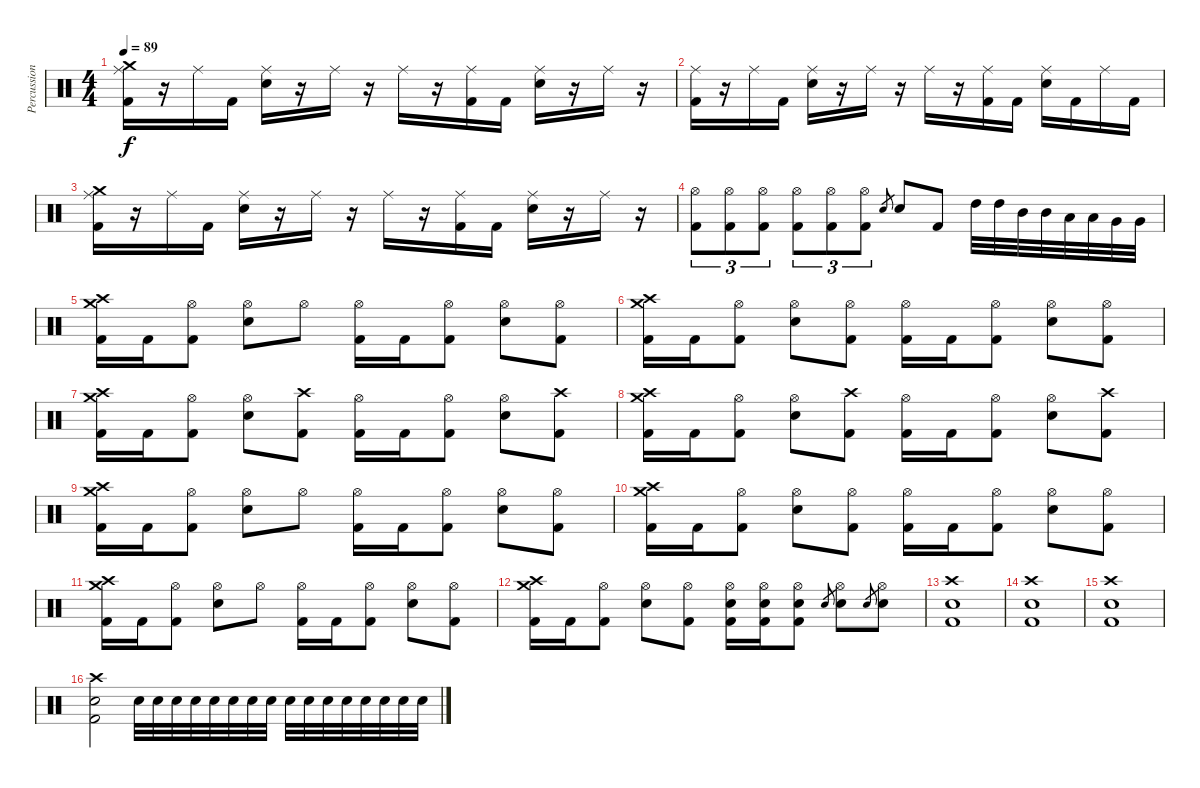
\track ("Percussions" "Percussion") {instrument percussion}
\staff {score}
\articulation defaults
\ts (4 4)
\tempo 89
\clef neutral
\ks c
("Crash medium (hit)" "Ride (middle)" "Kick (hit) 2").16{dy f} r.16 "Ride (middle)".16 "Kick (hit) 2".16 ("Ride (middle)" "Snare (hit) 2").16 r.16 "Ride (middle)".16 r.16 "Ride (middle)".16 r.16 ("Ride (middle)" "Kick (hit) 2").16 "Kick (hit) 2".16 ("Ride (middle)" "Snare (hit) 2").16 r.16 "Ride (middle)".16 r.16 |
("Ride (middle)" "Kick (hit) 2").16 r.16 "Ride (middle)".16 "Kick (hit) 2".16 ("Ride (middle)" "Snare (hit) 2").16 r.16 "Ride (middle)".16 r.16 "Ride (middle)".16 r.16 ("Ride (middle)" "Kick (hit) 2").16 "Kick (hit) 2".16 ("Ride (middle)" "Snare (hit) 2").16 "Kick (hit) 2".16 "Ride (middle)".16 "Kick (hit) 2".16 |
("Crash medium (hit)" "Ride (middle)" "Kick (hit) 2").16 r.16 "Ride (middle)".16 "Kick (hit) 2".16 ("Ride (middle)" "Snare (hit) 2").16 r.16 "Ride (middle)".16 r.16 "Ride (middle)".16 r.16 ("Ride (middle)" "Kick (hit) 2").16 "Kick (hit) 2".16 ("Ride (middle)" "Snare (hit) 2").16 r.16 "Ride (middle)".16 r.16 |
("Hi-Hat (open)" "Kick (hit) 2").8{tu (3 2)} ("Hi-Hat (open)" "Kick (hit) 2").8{tu (3 2)} ("Hi-Hat (open)" "Kick (hit) 2").8{tu (3 2)} ("Hi-Hat (open)" "Kick (hit) 2").8{tu (3 2)} ("Hi-Hat (open)" "Kick (hit) 2").8{tu (3 2)} ("Hi-Hat (open)" "Kick (hit) 2").8{tu (3 2)} "Snare (hit) 2".8{gr} "Snare (hit) 2".8 "Kick (hit) 2".8 "High Tom (hit)".32 "High Tom (hit)".32 "Mid Tom (hit)".32 "Mid Tom (hit)".32 "Low Tom (hit)".32 "Low Tom (hit)".32 "Very Low Tom (hit)".32 "Very Low Tom (hit)".32 |
("Crash high (hit)" "Crash medium (hit)" "Kick (hit) 2").16 "Kick (hit) 2".16 ("Hi-Hat (open)" "Kick (hit) 2").8 ("Hi-Hat (open)" "Snare (hit) 2").8 "Hi-Hat (open)".8 ("Hi-Hat (open)" "Kick (hit) 2").16 "Kick (hit) 2".16 ("Hi-Hat (open)" "Kick (hit) 2").8 ("Hi-Hat (open)" "Snare (hit) 2").8 ("Hi-Hat (open)" "Kick (hit) 2").8 |
("Crash high (hit)" "Crash medium (hit)" "Kick (hit) 2").16 "Kick (hit) 2".16 ("Hi-Hat (open)" "Kick (hit) 2").8 ("Hi-Hat (open)" "Snare (hit) 2").8 ("Hi-Hat (open)" "Kick (hit) 2").8 ("Hi-Hat (open)" "Kick (hit) 2").16 "Kick (hit) 2".16 ("Hi-Hat (open)" "Kick (hit) 2").8 ("Hi-Hat (open)" "Snare (hit) 2").8 ("Hi-Hat (open)" "Kick (hit) 2").8 |
("Crash high (hit)" "Crash medium (hit)" "Kick (hit) 2").16 "Kick (hit) 2".16 ("Hi-Hat (open)" "Kick (hit) 2").8 ("Hi-Hat (open)" "Snare (hit) 2").8 ("Crash high (hit)" "Kick (hit) 2").8 ("Hi-Hat (open)" "Kick (hit) 2").16 "Kick (hit) 2".16 ("Hi-Hat (open)" "Kick (hit) 2").8 ("Hi-Hat (open)" "Snare (hit) 2").8 ("Crash high (hit)" "Kick (hit) 2").8 |
("Crash high (hit)" "Crash medium (hit)" "Kick (hit) 2").16 "Kick (hit) 2".16 ("Hi-Hat (open)" "Kick (hit) 2").8 ("Hi-Hat (open)" "Snare (hit) 2").8 ("Crash high (hit)" "Kick (hit) 2").8 ("Hi-Hat (open)" "Kick (hit) 2").16 "Kick (hit) 2".16 ("Hi-Hat (open)" "Kick (hit) 2").8 ("Hi-Hat (open)" "Snare (hit) 2").8 ("Crash high (hit)" "Kick (hit) 2").8 |
("Crash high (hit)" "Crash medium (hit)" "Kick (hit) 2").16 "Kick (hit) 2".16 ("Hi-Hat (open)" "Kick (hit) 2").8 ("Hi-Hat (open)" "Snare (hit) 2").8 "Hi-Hat (open)".8 ("Hi-Hat (open)" "Kick (hit) 2").16 "Kick (hit) 2".16 ("Hi-Hat (open)" "Kick (hit) 2").8 ("Hi-Hat (open)" "Snare (hit) 2").8 ("Hi-Hat (open)" "Kick (hit) 2").8 |
("Crash high (hit)" "Crash medium (hit)" "Kick (hit) 2").16 "Kick (hit) 2".16 ("Hi-Hat (open)" "Kick (hit) 2").8 ("Hi-Hat (open)" "Snare (hit) 2").8 ("Hi-Hat (open)" "Kick (hit) 2").8 ("Hi-Hat (open)" "Kick (hit) 2").16 "Kick (hit) 2".16 ("Hi-Hat (open)" "Kick (hit) 2").8 ("Hi-Hat (open)" "Snare (hit) 2").8 ("Hi-Hat (open)" "Kick (hit) 2").8 |
("Crash high (hit)" "Crash medium (hit)" "Kick (hit) 2").16 "Kick (hit) 2".16 ("Hi-Hat (open)" "Kick (hit) 2").8 ("Hi-Hat (open)" "Snare (hit) 2").8 "Hi-Hat (open)".8 ("Hi-Hat (open)" "Kick (hit) 2").16 "Kick (hit) 2".16 ("Hi-Hat (open)" "Kick (hit) 2").8 ("Hi-Hat (open)" "Snare (hit) 2").8 ("Hi-Hat (open)" "Kick (hit) 2").8 |
("Crash high (hit)" "Crash medium (hit)" "Kick (hit) 2").16 "Kick (hit) 2".16 ("Hi-Hat (open)" "Kick (hit) 2").8 ("Hi-Hat (open)" "Snare (hit) 2").8 ("Hi-Hat (open)" "Kick (hit) 2").8 ("Hi-Hat (open)" "Snare (hit) 2" "Kick (hit) 2").16 ("Hi-Hat (open)" "Snare (hit) 2" "Kick (hit) 2").16 ("Hi-Hat (open)" "Snare (hit) 2" "Kick (hit) 2").8 "Snare (hit) 2".8{gr} ("Hi-Hat (open)" "Snare (hit) 2").8 "Snare (hit) 2".8{gr} ("Hi-Hat (open)" "Snare (hit) 2").8 |
("Crash high (hit)" "Snare (hit) 2" "Kick (hit) 2").1 |
("Crash high (hit)" "Snare (hit) 2" "Kick (hit) 2").1 |
("Crash high (hit)" "Snare (hit) 2" "Kick (hit) 2").1 |
("Crash high (hit)" "Snare (hit) 2" "Kick (hit) 2").2 "Electric Snare (hit)".32 "Electric Snare (hit)".32 "Electric Snare (hit)".32 "Electric Snare (hit)".32 "Electric Snare (hit)".32 "Electric Snare (hit)".32 "Electric Snare (hit)".32 "Electric Snare (hit)".32 "Electric Snare (hit)".32 "Electric Snare (hit)".32 "Electric Snare (hit)".32 "Electric Snare (hit)".32 "Electric Snare (hit)".32 "Electric Snare (hit)".32 "Electric Snare (hit)".32 "Electric Snare (hit)".32
